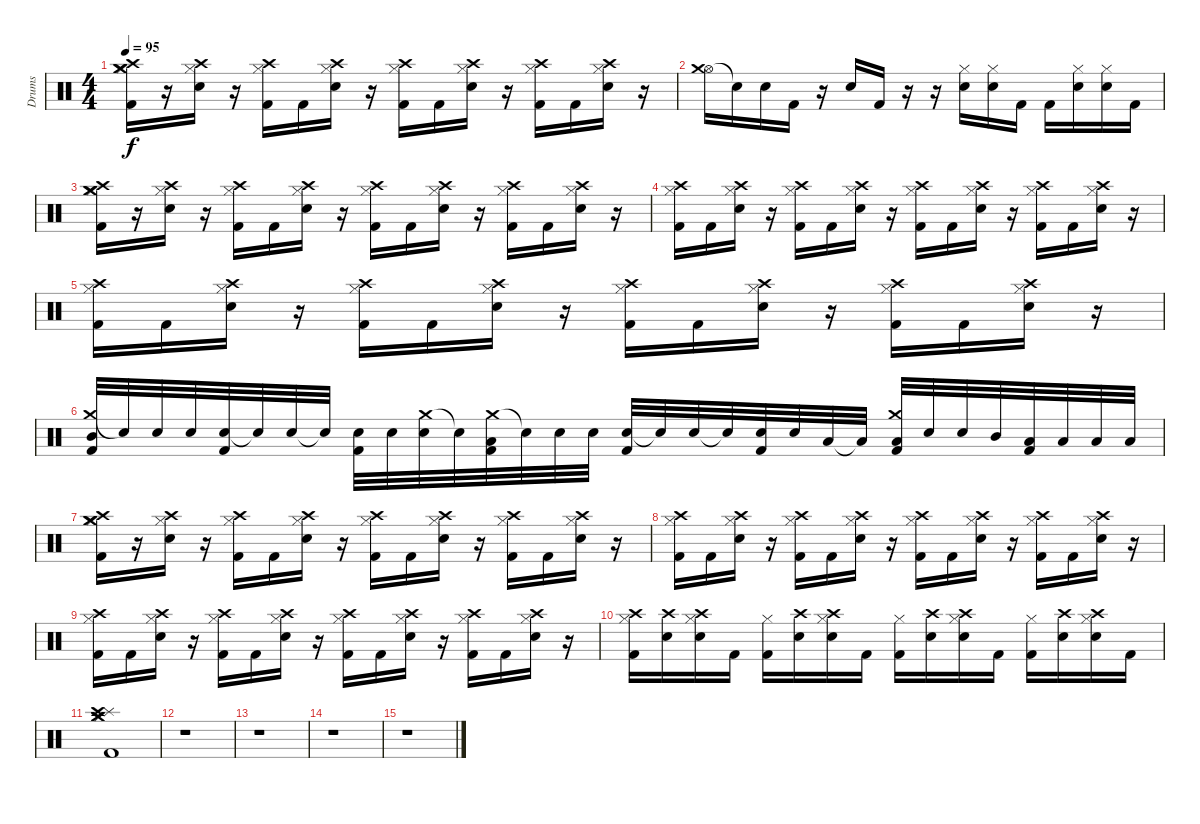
\track ("Drums" "Drums") {instrument percussion}
\staff {score}
\articulation defaults
\ts (4 4)
\tempo 95
\clef neutral
\ks c
("Hi-Hat (closed)" "Kick (hit) 2" "Crash medium (hit)" "Crash high (hit)" "Crash medium (hit)").16{dy f} r.16 ("Hi-Hat (closed)" "Snare (hit) 2" "Crash high (hit)").16 r.16 ("Hi-Hat (closed)" "Kick (hit) 2" "Crash high (hit)").16 "Kick (hit) 2".16 ("Hi-Hat (closed)" "Snare (hit) 2" "Crash high (hit)").16 r.16 ("Hi-Hat (closed)" "Kick (hit) 2" "Crash high (hit)").16 "Kick (hit) 2".16 ("Hi-Hat (closed)" "Snare (hit) 2" "Crash high (hit)").16 r.16 ("Hi-Hat (closed)" "Kick (hit) 2" "Crash high (hit)").16 "Kick (hit) 2".16 ("Hi-Hat (closed)" "Snare (hit) 2" "Crash high (hit)").16 r.16 |
("Hi-Hat (open)" "Crash medium (hit)").16 "Snare (hit)"{t}.16 "Snare (hit) 2".16 "Kick (hit) 2".16 r.16 "Snare (hit) 2".16 "Kick (hit) 2".16 r.16 r.16 ("Hi-Hat (closed)" "Snare (hit) 2").16 ("Hi-Hat (closed)" "Snare (hit) 2").16 "Kick (hit) 2".16 "Kick (hit) 2".16 ("Hi-Hat (closed)" "Snare (hit) 2").16 ("Hi-Hat (closed)" "Snare (hit) 2").16 "Kick (hit) 2".16 |
("Hi-Hat (closed)" "Kick (hit) 2" "Crash medium (hit)" "Crash high (hit)" "Crash medium (hit)").16 r.16 ("Hi-Hat (closed)" "Snare (hit) 2" "Crash high (hit)").16 r.16 ("Hi-Hat (closed)" "Kick (hit) 2" "Crash high (hit)").16 "Kick (hit) 2".16 ("Hi-Hat (closed)" "Snare (hit) 2" "Crash high (hit)").16 r.16 ("Hi-Hat (closed)" "Kick (hit) 2" "Crash high (hit)").16 "Kick (hit) 2".16 ("Hi-Hat (closed)" "Snare (hit) 2" "Crash high (hit)").16 r.16 ("Hi-Hat (closed)" "Kick (hit) 2" "Crash high (hit)").16 "Kick (hit) 2".16 ("Hi-Hat (closed)" "Snare (hit) 2" "Crash high (hit)").16 r.16 |
("Hi-Hat (closed)" "Kick (hit) 2" "Crash high (hit)").16 "Kick (hit) 2".16 ("Hi-Hat (closed)" "Snare (hit) 2" "Crash high (hit)").16 r.16 ("Hi-Hat (closed)" "Kick (hit) 2" "Crash high (hit)").16 "Kick (hit) 2".16 ("Hi-Hat (closed)" "Snare (hit) 2" "Crash high (hit)").16 r.16 ("Hi-Hat (closed)" "Kick (hit) 2" "Crash high (hit)").16 "Kick (hit) 2".16 ("Hi-Hat (closed)" "Snare (hit) 2" "Crash high (hit)").16 r.16 ("Hi-Hat (closed)" "Kick (hit) 2" "Crash high (hit)").16 "Kick (hit) 2".16 ("Hi-Hat (closed)" "Snare (hit) 2" "Crash high (hit)").16 r.16 |
("Hi-Hat (closed)" "Kick (hit) 2" "Crash high (hit)").16 "Kick (hit) 2".16 ("Hi-Hat (closed)" "Snare (hit) 2" "Crash high (hit)").16 r.16 ("Hi-Hat (closed)" "Kick (hit) 2" "Crash high (hit)").16 "Kick (hit) 2".16 ("Hi-Hat (closed)" "Snare (hit) 2" "Crash high (hit)").16 r.16 ("Hi-Hat (closed)" "Kick (hit) 2" "Crash high (hit)").16 "Kick (hit) 2".16 ("Hi-Hat (closed)" "Snare (hit) 2" "Crash high (hit)").16 r.16 ("Hi-Hat (closed)" "Kick (hit) 2" "Crash high (hit)").16 "Kick (hit) 2".16 ("Hi-Hat (closed)" "Snare (hit) 2" "Crash high (hit)").16 r.16 |
("Crash medium (hit)" "Mid Tom (hit)" "Kick (hit) 2").32 "Snare (hit)"{t}.32 "Snare (hit) 2".32 "Snare (hit) 2".32 ("Snare (hit) 2" "Kick (hit) 2").32 "Snare (hit) 2"{t}.32 "Snare (hit) 2".32 "Snare (hit) 2"{t}.32 ("Snare (hit) 2" "Kick (hit) 2").32 "Snare (hit) 2".32 ("Crash medium (hit)" "Snare (hit) 2").32 "Snare (hit) 2"{t}.32 ("Crash medium (hit)" "Low Tom (hit)" "Kick (hit) 2").32 "Snare (hit)"{t}.32 "Snare (hit) 2".32 "Snare (hit) 2".32 ("Snare (hit) 2" "Kick (hit) 2").32 "Snare (hit)"{t}.32 "Snare (hit) 2".32 "Snare (hit)"{t}.32 ("Snare (hit) 2" "Kick (hit) 2").32 "Snare (hit) 2".32 "Low Tom (hit)".32 "Low Tom (hit)"{t}.32 ("Crash medium (hit)" "Low Floor Tom (hit)" "Kick (hit) 2").32 "Snare (hit) 2".32 "Snare (hit) 2".32 "Mid Tom (hit)".32 ("Low Tom (hit)" "Kick (hit) 2").32 "Low Tom (hit)".32 "Low Floor Tom (hit)".32 "Low Floor Tom (hit)".32 |
("Hi-Hat (closed)" "Kick (hit) 2" "Crash medium (hit)" "Crash high (hit)" "Crash medium (hit)").16 r.16 ("Hi-Hat (closed)" "Snare (hit) 2" "Crash high (hit)").16 r.16 ("Hi-Hat (closed)" "Kick (hit) 2" "Crash high (hit)").16 "Kick (hit) 2".16 ("Hi-Hat (closed)" "Snare (hit) 2" "Crash high (hit)").16 r.16 ("Hi-Hat (closed)" "Kick (hit) 2" "Crash high (hit)").16 "Kick (hit) 2".16 ("Hi-Hat (closed)" "Snare (hit) 2" "Crash high (hit)").16 r.16 ("Hi-Hat (closed)" "Kick (hit) 2" "Crash high (hit)").16 "Kick (hit) 2".16 ("Hi-Hat (closed)" "Snare (hit) 2" "Crash high (hit)").16 r.16 |
("Hi-Hat (closed)" "Kick (hit) 2" "Crash high (hit)").16 "Kick (hit) 2".16 ("Hi-Hat (closed)" "Snare (hit) 2" "Crash high (hit)").16 r.16 ("Hi-Hat (closed)" "Kick (hit) 2" "Crash high (hit)").16 "Kick (hit) 2".16 ("Hi-Hat (closed)" "Snare (hit) 2" "Crash high (hit)").16 r.16 ("Hi-Hat (closed)" "Kick (hit) 2" "Crash high (hit)").16 "Kick (hit) 2".16 ("Hi-Hat (closed)" "Snare (hit) 2" "Crash high (hit)").16 r.16 ("Hi-Hat (closed)" "Kick (hit) 2" "Crash high (hit)").16 "Kick (hit) 2".16 ("Hi-Hat (closed)" "Snare (hit) 2" "Crash high (hit)").16 r.16 |
("Hi-Hat (closed)" "Kick (hit) 2" "Crash high (hit)").16 "Kick (hit) 2".16 ("Hi-Hat (closed)" "Snare (hit) 2" "Crash high (hit)").16 r.16 ("Hi-Hat (closed)" "Kick (hit) 2" "Crash high (hit)").16 "Kick (hit) 2".16 ("Hi-Hat (closed)" "Snare (hit) 2" "Crash high (hit)").16 r.16 ("Hi-Hat (closed)" "Kick (hit) 2" "Crash high (hit)").16 "Kick (hit) 2".16 ("Hi-Hat (closed)" "Snare (hit) 2" "Crash high (hit)").16 r.16 ("Hi-Hat (closed)" "Kick (hit) 2" "Crash high (hit)").16 "Kick (hit) 2".16 ("Hi-Hat (closed)" "Snare (hit) 2" "Crash high (hit)").16 r.16 |
("Hi-Hat (closed)" "Kick (hit) 2" "Crash high (hit)").16 ("Snare (hit) 2" "Crash high (hit)").16 ("Hi-Hat (closed)" "Snare (hit) 2" "Crash high (hit)").16 "Kick (hit) 2".16 ("Hi-Hat (closed)" "Kick (hit) 2").16 ("Snare (hit) 2" "Crash high (hit)").16 ("Hi-Hat (closed)" "Snare (hit) 2" "Crash high (hit)").16 "Kick (hit) 2".16 ("Hi-Hat (closed)" "Kick (hit) 2").16 ("Snare (hit) 2" "Crash high (hit)").16 ("Hi-Hat (closed)" "Snare (hit) 2" "Crash high (hit)").16 "Kick (hit) 2".16 ("Hi-Hat (closed)" "Kick (hit) 2").16 ("Snare (hit) 2" "Crash high (hit)").16 ("Hi-Hat (closed)" "Snare (hit) 2" "Crash high (hit)").16 "Kick (hit) 2".16 |
("Hi-Hat (closed)" "Splash (hit)" "Kick (hit) 2" "Crash medium (hit)" "Crash high (hit)" "Crash medium (hit)").1 |
r.1 |
r.1 |
r.1 |
r.1
